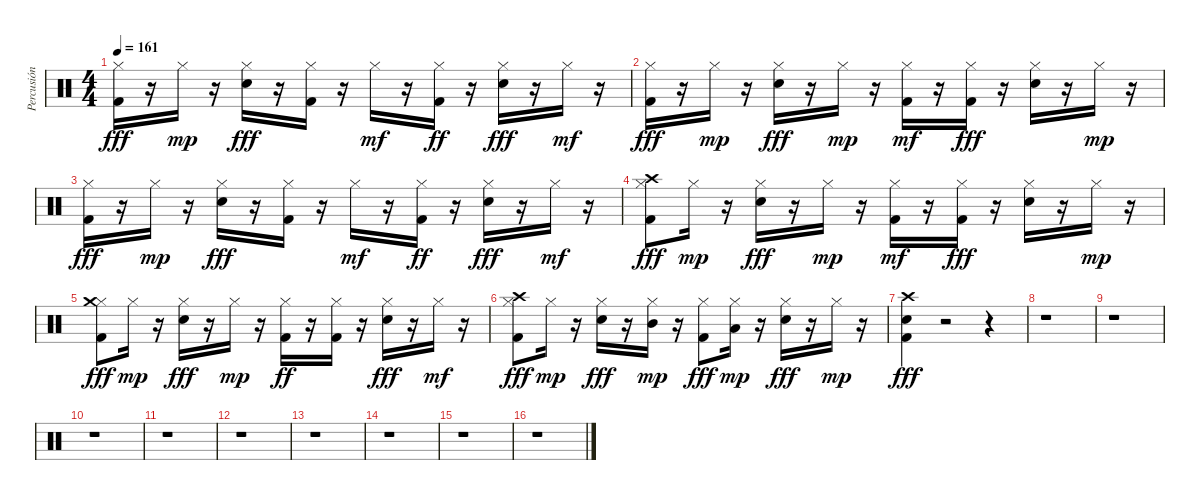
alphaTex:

\track ("Percusión" "Percusión") {instrument percussion}
\staff {score}
\articulation defaults
\ts (4 4)
\tempo 161
\clef neutral
\ks c
("Hi-Hat (closed)" "Kick (hit) 2").16{dy fff} r.16 "Hi-Hat (closed)".16{dy mp} r.16 ("Hi-Hat (closed)" "Snare (hit) 2").16{dy fff} r.16 ("Hi-Hat (closed)" "Kick (hit) 2").16 r.16 "Hi-Hat (closed)".16{dy mf} r.16 ("Hi-Hat (closed)" "Kick (hit) 2").16{dy ff} r.16 ("Hi-Hat (closed)" "Snare (hit) 2").16{dy fff} r.16 "Hi-Hat (closed)".16{dy mf} r.16 |
("Hi-Hat (closed)" "Kick (hit) 2").16{dy fff} r.16 "Hi-Hat (closed)".16{dy mp} r.16 ("Hi-Hat (closed)" "Snare (hit) 2").16{dy fff} r.16 "Hi-Hat (closed)".16{dy mp} r.16 ("Hi-Hat (closed)" "Kick (hit) 2").16{dy mf} r.16 ("Hi-Hat (closed)" "Kick (hit) 2").16{dy fff} r.16 ("Hi-Hat (closed)" "Snare (hit) 2").16 r.16 "Hi-Hat (closed)".16{dy mp} r.16 |
("Hi-Hat (closed)" "Kick (hit) 2").16{dy fff} r.16 "Hi-Hat (closed)".16{dy mp} r.16 ("Hi-Hat (closed)" "Snare (hit) 2").16{dy fff} r.16 ("Hi-Hat (closed)" "Kick (hit) 2").16 r.16 "Hi-Hat (closed)".16{dy mf} r.16 ("Hi-Hat (closed)" "Kick (hit) 2").16{dy ff} r.16 ("Hi-Hat (closed)" "Snare (hit) 2").16{dy fff} r.16 "Hi-Hat (closed)".16{dy mf} r.16 |
("Hi-Hat (closed)" "Crash high (hit)" "Kick (hit) 2").8{dy fff} "Hi-Hat (closed)".16{dy mp} r.16 ("Hi-Hat (closed)" "Snare (hit) 2").16{dy fff} r.16 "Hi-Hat (closed)".16{dy mp} r.16 ("Hi-Hat (closed)" "Kick (hit) 2").16{dy mf} r.16 ("Hi-Hat (closed)" "Kick (hit) 2").16{dy fff} r.16 ("Hi-Hat (closed)" "Snare (hit) 2").16 r.16 "Hi-Hat (closed)".16{dy mp} r.16 |
("Hi-Hat (closed)" "Crash medium (hit)" "Kick (hit) 2").8{dy fff} "Hi-Hat (closed)".16{dy mp} r.16 ("Hi-Hat (closed)" "Snare (hit) 2").16{dy fff} r.16 "Hi-Hat (closed)".16{dy mp} r.16 ("Hi-Hat (closed)" "Kick (hit) 2").16{dy ff} r.16 ("Hi-Hat (closed)" "Kick (hit) 2").16 r.16 ("Hi-Hat (closed)" "Snare (hit) 2").16{dy fff} r.16 "Hi-Hat (closed)".16{dy mf} r.16 |
("Hi-Hat (closed)" "Crash high (hit)" "Kick (hit) 2").8{dy fff} "Hi-Hat (closed)".16{dy mp} r.16 ("Hi-Hat (closed)" "Snare (hit) 2").16{dy fff} r.16 ("Mid Tom (hit)" "Hi-Hat (closed)").16{dy mp} r.16 ("Hi-Hat (closed)" "Kick (hit) 2").8{dy fff} ("Low Tom (hit)" "Hi-Hat (closed)").16{dy mp} r.16 ("Hi-Hat (closed)" "Snare (hit) 2").16{dy fff} r.16 "Hi-Hat (closed)".16{dy mp} r.16 |
("Crash high (hit)" "Kick (hit) 2" "Snare (hit) 2").4{dy fff} r.2 r.4 |
r.1 |
r.1 |
r.1 |
r.1 |
r.1 |
r.1 |
r.1 |
r.1 |
r.1
